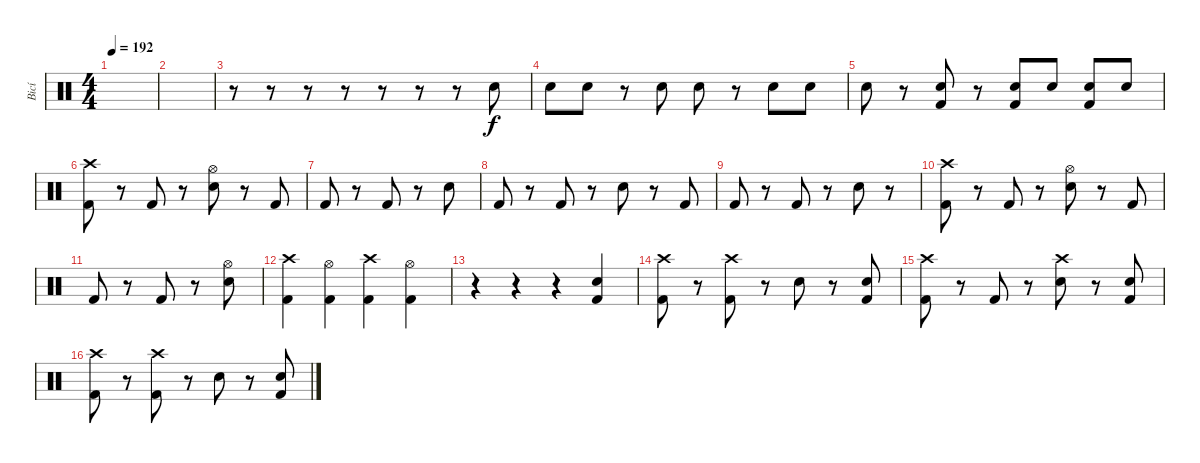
\track ("Bicí" "Bicí") {instrument percussion}
\staff {score}
\articulation defaults
\ts (4 4)
\tempo 192
\clef neutral
\ks c
|
|
r.8 r.8 r.8 r.8 r.8 r.8 r.8 "Electric Snare (hit)".8 |
"Electric Snare (hit)".8 "Electric Snare (hit)".8 r.8 "Electric Snare (hit)".8 "Electric Snare (hit)".8 r.8 "Electric Snare (hit)".8 "Electric Snare (hit)".8 |
"Electric Snare (hit)".8 r.8 ("Electric Snare (hit)" "Kick (hit) 2").8 r.8 ("Electric Snare (hit)" "Kick (hit) 2").8 "Electric Snare (hit)".8 ("Electric Snare (hit)" "Kick (hit) 2").8 "Electric Snare (hit)".8 |
("Crash high (hit)" "Kick (hit) 2").8 r.8 "Kick (hit) 2".8 r.8 ("Hi-Hat (open)" "Electric Snare (hit)").8 r.8 "Kick (hit) 2".8 |
"Kick (hit) 2".8 r.8 "Kick (hit) 2".8 r.8 "Electric Snare (hit)".8 |
"Kick (hit) 2".8 r.8 "Kick (hit) 2".8 r.8 "Electric Snare (hit)".8 r.8 "Kick (hit) 2".8 |
"Kick (hit) 2".8 r.8 "Kick (hit) 2".8 r.8 "Electric Snare (hit)".8 r.8 |
("Crash high (hit)" "Kick (hit) 2").8 r.8 "Kick (hit) 2".8 r.8 ("Hi-Hat (open)" "Electric Snare (hit)").8 r.8 "Kick (hit) 2".8 |
"Kick (hit) 2".8 r.8 "Kick (hit) 2".8 r.8 ("Hi-Hat (open)" "Electric Snare (hit)").8 |
("Crash high (hit)" "Kick (hit) 2").4 ("Hi-Hat (open)" "Kick (hit) 2").4 ("Crash high (hit)" "Kick (hit) 2").4 ("Hi-Hat (open)" "Kick (hit) 2").4 |
r.4 r.4 r.4 ("Electric Snare (hit)" "Kick (hit) 2").4 |
("Crash high (hit)" "Kick (hit) 2").8 r.8 ("Crash high (hit)" "Kick (hit) 2").8 r.8 "Electric Snare (hit)".8 r.8 ("Electric Snare (hit)" "Kick (hit) 2").8 |
("Crash high (hit)" "Kick (hit) 2").8 r.8 "Kick (hit) 2".8 r.8 ("Crash high (hit)" "Electric Snare (hit)").8 r.8 ("Electric Snare (hit)" "Kick (hit) 2").8 |
("Crash high (hit)" "Kick (hit) 2").8 r.8 ("Crash high (hit)" "Kick (hit) 2").8 r.8 "Electric Snare (hit)".8 r.8 ("Electric Snare (hit)" "Kick (hit) 2").8
